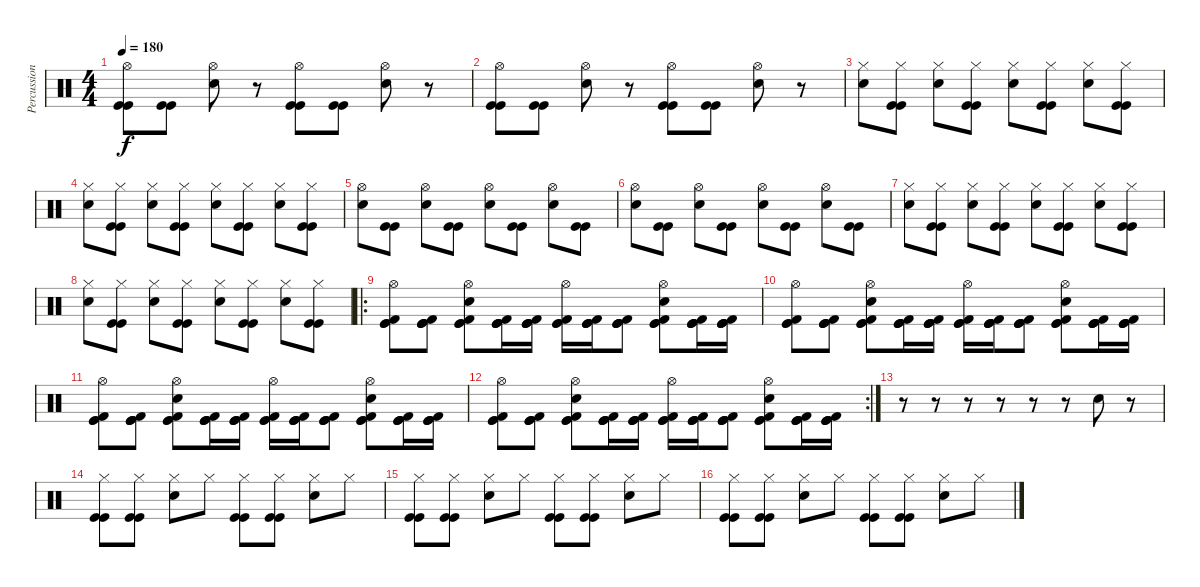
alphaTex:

\track ("Percussion" "Percussion") {instrument percussion}
\staff {score}
\articulation defaults
\ts (4 4)
\tempo 180
\clef neutral
\ks c
("Hi-Hat (open)" "Kick (hit)" "Kick (hit)").8{dy f} ("Kick (hit)" "Kick (hit)").8 ("Hi-Hat (open)" "Electric Snare (hit)").8 r.8 ("Hi-Hat (open)" "Kick (hit)" "Kick (hit)").8 ("Kick (hit)" "Kick (hit)").8 ("Hi-Hat (open)" "Electric Snare (hit)").8 r.8 |
("Hi-Hat (open)" "Kick (hit)" "Kick (hit)").8 ("Kick (hit)" "Kick (hit)").8 ("Hi-Hat (open)" "Electric Snare (hit)").8 r.8 ("Hi-Hat (open)" "Kick (hit)" "Kick (hit)").8 ("Kick (hit)" "Kick (hit)").8 ("Hi-Hat (open)" "Electric Snare (hit)").8 r.8 |
("Hi-Hat (closed)" "Electric Snare (hit)").8 ("Hi-Hat (closed)" "Kick (hit)" "Kick (hit)").8 ("Hi-Hat (closed)" "Electric Snare (hit)").8 ("Hi-Hat (closed)" "Kick (hit)" "Kick (hit)").8 ("Hi-Hat (closed)" "Electric Snare (hit)").8 ("Hi-Hat (closed)" "Kick (hit)" "Kick (hit)").8 ("Hi-Hat (closed)" "Electric Snare (hit)").8 ("Hi-Hat (closed)" "Kick (hit)" "Kick (hit)").8 |
("Hi-Hat (closed)" "Electric Snare (hit)").8 ("Hi-Hat (closed)" "Kick (hit)" "Kick (hit)").8 ("Hi-Hat (closed)" "Electric Snare (hit)").8 ("Hi-Hat (closed)" "Kick (hit)" "Kick (hit)").8 ("Hi-Hat (closed)" "Electric Snare (hit)").8 ("Hi-Hat (closed)" "Kick (hit)" "Kick (hit)").8 ("Hi-Hat (closed)" "Electric Snare (hit)").8 ("Hi-Hat (closed)" "Kick (hit)" "Kick (hit)").8 |
("Hi-Hat (open)" "Electric Snare (hit)").8 ("Kick (hit)" "Kick (hit)").8 ("Hi-Hat (open)" "Electric Snare (hit)").8 ("Kick (hit)" "Kick (hit)").8 ("Hi-Hat (open)" "Electric Snare (hit)").8 ("Kick (hit)" "Kick (hit)").8 ("Hi-Hat (open)" "Electric Snare (hit)").8 ("Kick (hit)" "Kick (hit)").8 |
("Hi-Hat (open)" "Electric Snare (hit)").8 ("Kick (hit)" "Kick (hit)").8 ("Hi-Hat (open)" "Electric Snare (hit)").8 ("Kick (hit)" "Kick (hit)").8 ("Hi-Hat (open)" "Electric Snare (hit)").8 ("Kick (hit)" "Kick (hit)").8 ("Hi-Hat (open)" "Electric Snare (hit)").8 ("Kick (hit)" "Kick (hit)").8 |
("Hi-Hat (closed)" "Electric Snare (hit)").8 ("Hi-Hat (closed)" "Kick (hit)" "Kick (hit)").8 ("Hi-Hat (closed)" "Electric Snare (hit)").8 ("Hi-Hat (closed)" "Kick (hit)" "Kick (hit)").8 ("Hi-Hat (closed)" "Electric Snare (hit)").8 ("Hi-Hat (closed)" "Kick (hit)" "Kick (hit)").8 ("Hi-Hat (closed)" "Electric Snare (hit)").8 ("Hi-Hat (closed)" "Kick (hit)" "Kick (hit)").8 |
("Hi-Hat (closed)" "Electric Snare (hit)").8 ("Hi-Hat (closed)" "Kick (hit)" "Kick (hit)").8 ("Hi-Hat (closed)" "Electric Snare (hit)").8 ("Hi-Hat (closed)" "Kick (hit)" "Kick (hit)").8 ("Hi-Hat (closed)" "Electric Snare (hit)").8 ("Hi-Hat (closed)" "Kick (hit)" "Kick (hit)").8 ("Hi-Hat (closed)" "Electric Snare (hit)").8 ("Hi-Hat (closed)" "Kick (hit)" "Kick (hit)").8 |
\ro
("Hi-Hat (open)" "Kick (hit)" "Kick (hit)" "Kick (hit) 2").8 ("Kick (hit)" "Kick (hit)" "Kick (hit)" "Kick (hit) 2").8 ("Hi-Hat (open)" "Kick (hit)" "Kick (hit)" "Kick (hit) 2" "Electric Snare (hit)").8 ("Kick (hit)" "Kick (hit)" "Kick (hit)" "Kick (hit) 2").16 ("Kick (hit)" "Kick (hit)" "Kick (hit)" "Kick (hit) 2").16 ("Hi-Hat (open)" "Kick (hit)" "Kick (hit)" "Kick (hit) 2").16 ("Kick (hit)" "Kick (hit)" "Kick (hit)" "Kick (hit) 2").16 ("Kick (hit)" "Kick (hit)" "Kick (hit)" "Kick (hit) 2").8 ("Hi-Hat (open)" "Kick (hit)" "Kick (hit)" "Kick (hit) 2" "Electric Snare (hit)").8 ("Kick (hit)" "Kick (hit)" "Kick (hit)" "Kick (hit) 2").16 ("Kick (hit)" "Kick (hit)" "Kick (hit)" "Kick (hit) 2").16 |
("Hi-Hat (open)" "Kick (hit)" "Kick (hit)" "Kick (hit) 2").8 ("Kick (hit)" "Kick (hit)" "Kick (hit)" "Kick (hit) 2").8 ("Hi-Hat (open)" "Kick (hit)" "Kick (hit)" "Kick (hit) 2" "Electric Snare (hit)").8 ("Kick (hit)" "Kick (hit)" "Kick (hit)" "Kick (hit) 2").16 ("Kick (hit)" "Kick (hit)" "Kick (hit)" "Kick (hit) 2").16 ("Hi-Hat (open)" "Kick (hit)" "Kick (hit)" "Kick (hit) 2").16 ("Kick (hit)" "Kick (hit)" "Kick (hit)" "Kick (hit) 2").16 ("Kick (hit)" "Kick (hit)" "Kick (hit)" "Kick (hit) 2").8 ("Hi-Hat (open)" "Kick (hit)" "Kick (hit)" "Kick (hit) 2" "Electric Snare (hit)").8 ("Kick (hit)" "Kick (hit)" "Kick (hit)" "Kick (hit) 2").16 ("Kick (hit)" "Kick (hit)" "Kick (hit)" "Kick (hit) 2").16 |
("Hi-Hat (open)" "Kick (hit)" "Kick (hit)" "Kick (hit) 2").8 ("Kick (hit)" "Kick (hit)" "Kick (hit)" "Kick (hit) 2").8 ("Hi-Hat (open)" "Kick (hit)" "Kick (hit)" "Kick (hit) 2" "Electric Snare (hit)").8 ("Kick (hit)" "Kick (hit)" "Kick (hit)" "Kick (hit) 2").16 ("Kick (hit)" "Kick (hit)" "Kick (hit)" "Kick (hit) 2").16 ("Hi-Hat (open)" "Kick (hit)" "Kick (hit)" "Kick (hit) 2").16 ("Kick (hit)" "Kick (hit)" "Kick (hit)" "Kick (hit) 2").16 ("Kick (hit)" "Kick (hit)" "Kick (hit)" "Kick (hit) 2").8 ("Hi-Hat (open)" "Kick (hit)" "Kick (hit)" "Kick (hit) 2" "Electric Snare (hit)").8 ("Kick (hit)" "Kick (hit)" "Kick (hit)" "Kick (hit) 2").16 ("Kick (hit)" "Kick (hit)" "Kick (hit)" "Kick (hit) 2").16 |
\rc 2
("Hi-Hat (open)" "Kick (hit)" "Kick (hit)" "Kick (hit) 2").8 ("Kick (hit)" "Kick (hit)" "Kick (hit)" "Kick (hit) 2").8 ("Hi-Hat (open)" "Kick (hit)" "Kick (hit)" "Kick (hit) 2" "Electric Snare (hit)").8 ("Kick (hit)" "Kick (hit)" "Kick (hit)" "Kick (hit) 2").16 ("Kick (hit)" "Kick (hit)" "Kick (hit)" "Kick (hit) 2").16 ("Hi-Hat (open)" "Kick (hit)" "Kick (hit)" "Kick (hit) 2").16 ("Kick (hit)" "Kick (hit)" "Kick (hit)" "Kick (hit) 2").16 ("Kick (hit)" "Kick (hit)" "Kick (hit)" "Kick (hit) 2").8 ("Hi-Hat (open)" "Kick (hit)" "Kick (hit)" "Kick (hit) 2" "Electric Snare (hit)").8 ("Kick (hit)" "Kick (hit)" "Kick (hit)" "Kick (hit) 2").16 ("Kick (hit)" "Kick (hit)" "Kick (hit)" "Kick (hit) 2").16 |
r.8 r.8 r.8 r.8 r.8 r.8 "Electric Snare (hit)".8 r.8 |
("Hi-Hat (closed)" "Kick (hit)" "Kick (hit)").8 ("Hi-Hat (closed)" "Kick (hit)" "Kick (hit)").8 ("Hi-Hat (closed)" "Electric Snare (hit)").8 "Hi-Hat (closed)".8 ("Hi-Hat (closed)" "Kick (hit)" "Kick (hit)").8 ("Hi-Hat (closed)" "Kick (hit)" "Kick (hit)").8 ("Hi-Hat (closed)" "Electric Snare (hit)").8 "Hi-Hat (closed)".8 |
("Hi-Hat (closed)" "Kick (hit)" "Kick (hit)").8 ("Hi-Hat (closed)" "Kick (hit)" "Kick (hit)").8 ("Hi-Hat (closed)" "Electric Snare (hit)").8 "Hi-Hat (closed)".8 ("Hi-Hat (closed)" "Kick (hit)" "Kick (hit)").8 ("Hi-Hat (closed)" "Kick (hit)" "Kick (hit)").8 ("Hi-Hat (closed)" "Electric Snare (hit)").8 "Hi-Hat (closed)".8 |
("Hi-Hat (closed)" "Kick (hit)" "Kick (hit)").8 ("Hi-Hat (closed)" "Kick (hit)" "Kick (hit)").8 ("Hi-Hat (closed)" "Electric Snare (hit)").8 "Hi-Hat (closed)".8 ("Hi-Hat (closed)" "Kick (hit)" "Kick (hit)").8 ("Hi-Hat (closed)" "Kick (hit)" "Kick (hit)").8 ("Hi-Hat (closed)" "Electric Snare (hit)").8 "Hi-Hat (closed)".8
